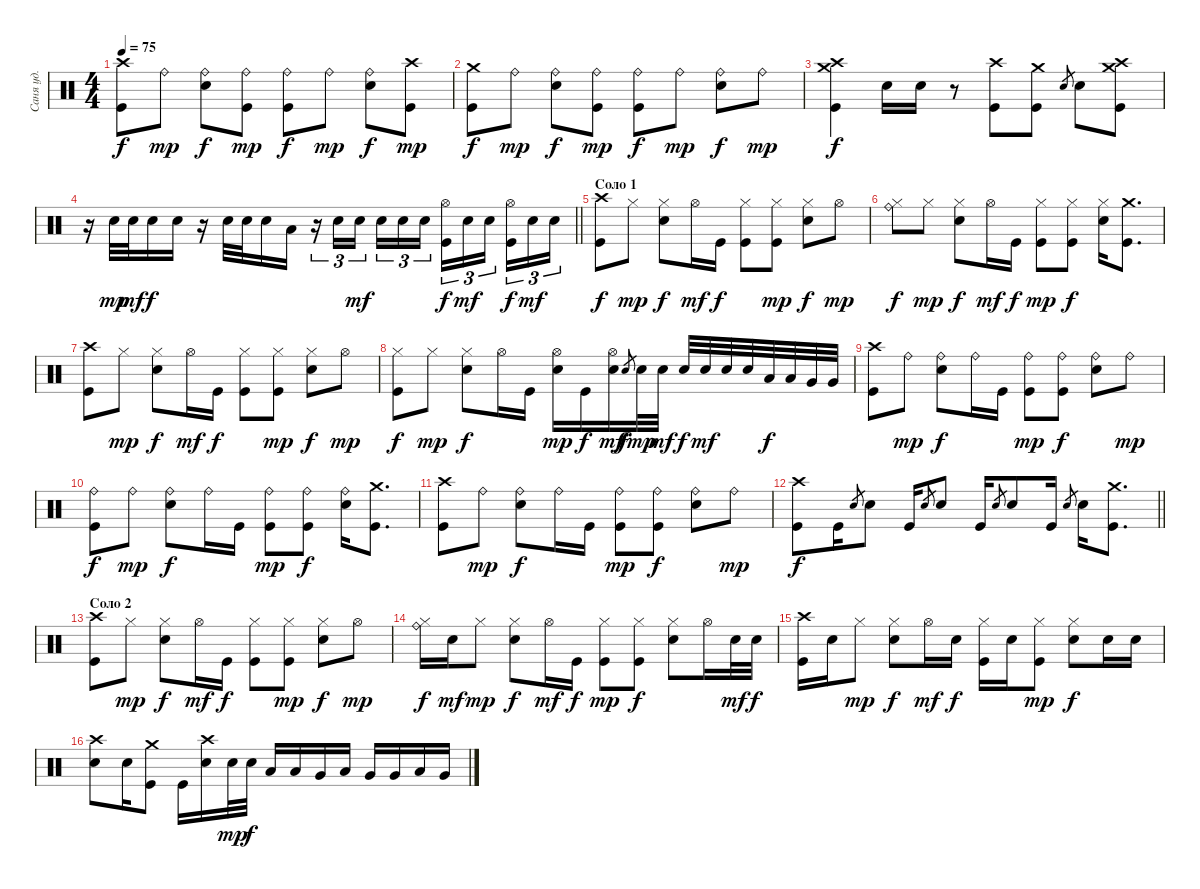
\track ("Саня уд." "Саня уд.") {instrument percussion}
\staff {score}
\articulation defaults
\ts (4 4)
\tempo 75
\clef neutral
\ks c
("Crash high (hit)" "Kick (hit)").8{dy f} "Ride (bell)".8{dy mp} ("Ride (bell)" "Snare (hit) 2").8{dy f} ("Ride (bell)" "Kick (hit)").8{dy mp} ("Ride (bell)" "Kick (hit)").8{dy f} "Ride (bell)".8{dy mp} ("Ride (bell)" "Snare (hit) 2").8{dy f} ("Crash high (hit)" "Kick (hit)").8{dy mp} |
("Crash medium (hit)" "Kick (hit)").8{dy f} "Ride (bell)".8{dy mp} ("Ride (bell)" "Snare (hit) 2").8{dy f} ("Ride (bell)" "Kick (hit)").8{dy mp} ("Ride (bell)" "Kick (hit)").8{dy f} "Ride (bell)".8{dy mp} ("Ride (bell)" "Snare (hit) 2").8{dy f} "Ride (bell)".8{dy mp} |
("Crash high (hit)" "Crash medium (hit)" "Kick (hit)").4{dy f} "Snare (hit) 2".16 "Snare (hit) 2".16 r.8 ("Crash high (hit)" "Kick (hit)").8 ("Crash medium (hit)" "Kick (hit)").8 "Snare (hit) 2".8{gr} "Snare (hit) 2".8 ("Crash medium (hit)" "Crash high (hit)" "Kick (hit)").8 |
\barLineRight lightlight
r.16 "Snare (hit) 2".32{dy mp} "Snare (hit) 2".32{dy mf} "Snare (hit) 2".16{dy f} "Snare (hit) 2".16 r.16 "Snare (hit) 2".32 "Snare (hit) 2".32 "Snare (hit) 2".16 "Low Tom (hit)".16 r.16{tu (3 2)} "Snare (hit) 2".16{tu (3 2)} "Snare (hit) 2".16{tu (3 2) dy mf beam splitsecondary} "Snare (hit) 2".16{tu (3 2)} "Snare (hit) 2".16{tu (3 2)} "Snare (hit) 2".16{tu (3 2)} ("Kick (hit)" "Hi-Hat (open)").16{tu (3 2) dy f} "Snare (hit) 2".16{tu (3 2) dy mf} "Snare (hit) 2".16{tu (3 2) beam splitsecondary} ("Kick (hit)" "Hi-Hat (open)").16{tu (3 2) dy f} "Snare (hit) 2".16{tu (3 2) dy mf} "Snare (hit) 2".16{tu (3 2)} |
\section ("" "Соло 1")
("Kick (hit)" "Crash high (hit)").8{dy f} "Hi-Hat (closed)".8{dy mp} ("Hi-Hat (closed)" "Snare (hit) 2").8{dy f} "Hi-Hat (open)".16{dy mf} "Kick (hit)".16{dy f} ("Hi-Hat (closed)" "Kick (hit)").8 ("Hi-Hat (closed)" "Kick (hit)").8{dy mp} ("Hi-Hat (closed)" "Snare (hit) 2").8{dy f} "Hi-Hat (open)".8{dy mp} |
("Hi-Hat (closed)" "Ride (bell)").8{dy f} "Hi-Hat (closed)".8{dy mp} ("Hi-Hat (closed)" "Snare (hit) 2").8{dy f} "Hi-Hat (open)".16{dy mf} "Kick (hit)".16{dy f} ("Hi-Hat (closed)" "Kick (hit)").8{dy mp} ("Hi-Hat (closed)" "Kick (hit)").8{dy f} ("Hi-Hat (closed)" "Snare (hit) 2").16 ("Kick (hit)" "Crash medium (hit)").8{d} |
("Kick (hit)" "Crash high (hit)").8 "Hi-Hat (closed)".8{dy mp} ("Hi-Hat (closed)" "Snare (hit) 2").8{dy f} "Hi-Hat (open)".16{dy mf} "Kick (hit)".16{dy f} ("Hi-Hat (closed)" "Kick (hit)").8 ("Hi-Hat (closed)" "Kick (hit)").8{dy mp} ("Hi-Hat (closed)" "Snare (hit) 2").8{dy f} "Hi-Hat (open)".8{dy mp} |
("Kick (hit)" "Hi-Hat (closed)").8{dy f} "Hi-Hat (closed)".8{dy mp} ("Hi-Hat (closed)" "Snare (hit) 2").8{dy f} "Hi-Hat (open)".16 "Kick (hit)".16 ("Snare (hit) 2" "Hi-Hat (open)").16{dy mp} "Kick (hit)".16{dy f} ("Snare (hit) 2" "Hi-Hat (open)").16{dy mf} "Snare (hit) 2".8{gr dy f} "Snare (hit) 2".32{dy mp} "Snare (hit) 2".32{dy mf} "Snare (hit) 2".32{dy f} "Snare (hit) 2".32{dy mf} "Snare (hit) 2".32 "Snare (hit) 2".32 "Low Tom (hit)".32{dy f} "Low Tom (hit)".32 "Very Low Tom (hit)".32 "Very Low Tom (hit)".32 |
("Kick (hit)" "Crash high (hit)").8 "Ride (bell)".8{dy mp} ("Ride (bell)" "Snare (hit) 2").8{dy f} "Ride (bell)".16 "Kick (hit)".16 ("Ride (bell)" "Kick (hit)").8{dy mp} ("Ride (bell)" "Kick (hit)").8{dy f} ("Ride (bell)" "Snare (hit) 2").8 "Ride (bell)".8{dy mp} |
("Kick (hit)" "Ride (bell)").8{dy f} "Ride (bell)".8{dy mp} ("Ride (bell)" "Snare (hit) 2").8{dy f} "Ride (bell)".16 "Kick (hit)".16 ("Ride (bell)" "Kick (hit)").8{dy mp} ("Ride (bell)" "Kick (hit)").8{dy f} ("Ride (bell)" "Snare (hit) 2").16 ("Kick (hit)" "Crash medium (hit)").8{d} |
("Kick (hit)" "Crash high (hit)").8 "Ride (bell)".8{dy mp} ("Ride (bell)" "Snare (hit) 2").8{dy f} "Ride (bell)".16 "Kick (hit)".16 ("Ride (bell)" "Kick (hit)").8{dy mp} ("Ride (bell)" "Kick (hit)").8{dy f} ("Ride (bell)" "Snare (hit) 2").8 "Ride (bell)".8{dy mp} |
\barLineRight lightlight
("Crash high (hit)" "Kick (hit)").8{dy f} "Kick (hit)".16 "Snare (hit) 2".8{gr} "Snare (hit) 2".8 "Kick (hit)".16 "Snare (hit) 2".8{gr} "Snare (hit) 2".8 "Kick (hit)".16 "Snare (hit) 2".8{gr} "Snare (hit) 2".8 "Kick (hit)".16 "Snare (hit) 2".8{gr} "Snare (hit) 2".16 ("Crash medium (hit)" "Kick (hit)").8{d} |
\section ("" "Соло 2")
("Kick (hit)" "Crash high (hit)").8 "Hi-Hat (closed)".8{dy mp} ("Hi-Hat (closed)" "Snare (hit) 2").8{dy f} "Hi-Hat (open)".16{dy mf} "Kick (hit)".16{dy f} ("Hi-Hat (closed)" "Kick (hit)").8 ("Hi-Hat (closed)" "Kick (hit)").8{dy mp} ("Hi-Hat (closed)" "Snare (hit) 2").8{dy f} "Hi-Hat (open)".8{dy mp} |
("Hi-Hat (closed)" "Ride (bell)").16{dy f} "Snare (hit) 2".16{dy mf} "Hi-Hat (closed)".8{dy mp} ("Hi-Hat (closed)" "Snare (hit) 2").8{dy f} "Hi-Hat (open)".16{dy mf} "Kick (hit)".16{dy f} ("Hi-Hat (closed)" "Kick (hit)").8{dy mp} ("Hi-Hat (closed)" "Kick (hit)").8{dy f} ("Hi-Hat (closed)" "Snare (hit) 2").8 "Hi-Hat (open)".16 "Snare (hit) 2".32{dy mf} "Snare (hit) 2".32{dy f} |
("Kick (hit)" "Crash high (hit)").16 "Snare (hit) 2".16 "Hi-Hat (closed)".8{dy mp} ("Hi-Hat (closed)" "Snare (hit) 2").8{dy f} "Hi-Hat (open)".16{dy mf} "Snare (hit) 2".16{dy f} ("Kick (hit)" "Hi-Hat (closed)").16 "Snare (hit) 2".16 ("Hi-Hat (closed)" "Kick (hit)").8{dy mp} ("Hi-Hat (closed)" "Snare (hit) 2").8{dy f} "Snare (hit) 2".16 "Snare (hit) 2".16 |
("Crash high (hit)" "Snare (hit) 2").8 "Snare (hit) 2".16 ("Crash medium (hit)" "Kick (hit)").8 "Kick (hit)".16 ("Crash high (hit)" "Snare (hit) 2").16 "Snare (hit) 2".32{dy mp} "Snare (hit) 2".32{dy f} "Low Tom (hit)".16 "Low Tom (hit)".16 "Very Low Tom (hit)".16 "Low Tom (hit)".16 "Very Low Tom (hit)".16 "Very Low Tom (hit)".16 "Low Tom (hit)".16 "Very Low Tom (hit)".16
